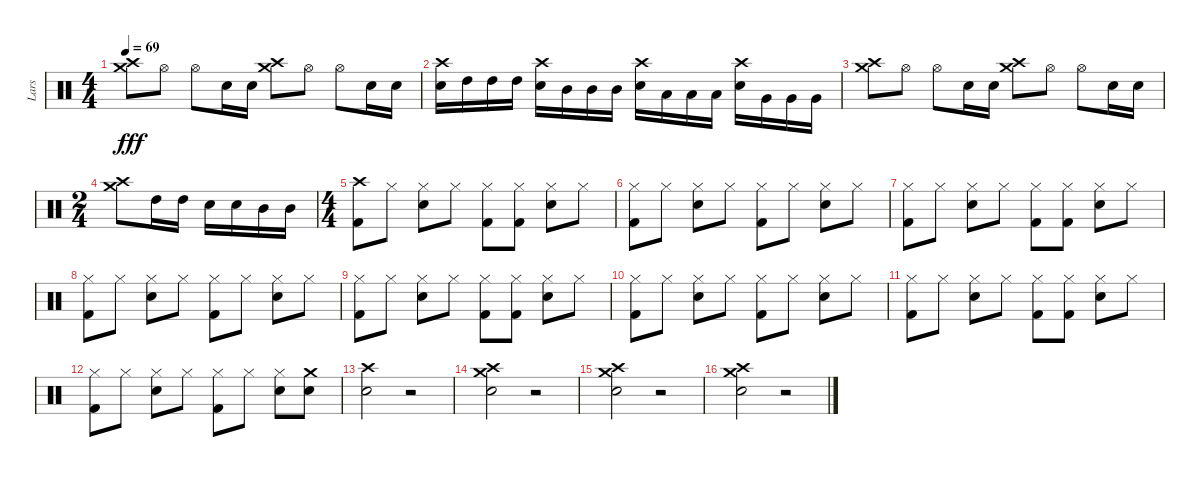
\track ("Lars" "Lars") {instrument percussion}
\staff {score}
\articulation defaults
\ts (4 4)
\tempo 69
\clef neutral
\ks c
("Crash high (hit)" "Crash medium (hit)").8{dy fff} "Hi-Hat (open)".8 "Hi-Hat (open)".8 "Electric Snare (hit)".16 "Electric Snare (hit)".16 ("Crash high (hit)" "Crash medium (hit)").8 "Hi-Hat (open)".8 "Hi-Hat (open)".8 "Electric Snare (hit)".16 "Electric Snare (hit)".16 |
("Crash high (hit)" "Electric Snare (hit)").16 "High Tom (hit)".16 "High Tom (hit)".16 "High Tom (hit)".16 ("Crash high (hit)" "Electric Snare (hit)").16 "Mid Tom (hit)".16 "Mid Tom (hit)".16 "Mid Tom (hit)".16 ("Crash high (hit)" "Electric Snare (hit)").16 "Low Tom (hit)".16 "Low Tom (hit)".16 "Low Tom (hit)".16 ("Crash high (hit)" "Electric Snare (hit)").16 "Very Low Tom (hit)".16 "Very Low Tom (hit)".16 "Very Low Tom (hit)".16 |
("Crash high (hit)" "Crash medium (hit)").8 "Hi-Hat (open)".8 "Hi-Hat (open)".8 "Electric Snare (hit)".16 "Electric Snare (hit)".16 ("Crash high (hit)" "Crash medium (hit)").8 "Hi-Hat (open)".8 "Hi-Hat (open)".8 "Electric Snare (hit)".16 "Electric Snare (hit)".16 |
\ts (2 4)
("Crash high (hit)" "Crash medium (hit)").8 "High Tom (hit)".16 "High Tom (hit)".16 "Electric Snare (hit)".16 "Electric Snare (hit)".16 "Mid Tom (hit)".16 "Mid Tom (hit)".16 |
\ts (4 4)
("Crash high (hit)" "Kick (hit) 2").8 "Hi-Hat (closed)".8 ("Hi-Hat (closed)" "Electric Snare (hit)").8 "Hi-Hat (closed)".8 ("Hi-Hat (closed)" "Kick (hit) 2").8 ("Hi-Hat (closed)" "Kick (hit) 2").8 ("Hi-Hat (closed)" "Electric Snare (hit)").8 "Hi-Hat (closed)".8 |
("Hi-Hat (closed)" "Kick (hit) 2").8 "Hi-Hat (closed)".8 ("Hi-Hat (closed)" "Electric Snare (hit)").8 "Hi-Hat (closed)".8 ("Hi-Hat (closed)" "Kick (hit) 2").8 "Hi-Hat (closed)".8 ("Hi-Hat (closed)" "Electric Snare (hit)").8 "Hi-Hat (closed)".8 |
("Hi-Hat (closed)" "Kick (hit) 2").8 "Hi-Hat (closed)".8 ("Hi-Hat (closed)" "Electric Snare (hit)").8 "Hi-Hat (closed)".8 ("Hi-Hat (closed)" "Kick (hit) 2").8 ("Hi-Hat (closed)" "Kick (hit) 2").8 ("Hi-Hat (closed)" "Electric Snare (hit)").8 "Hi-Hat (closed)".8 |
("Hi-Hat (closed)" "Kick (hit) 2").8 "Hi-Hat (closed)".8 ("Hi-Hat (closed)" "Electric Snare (hit)").8 "Hi-Hat (closed)".8 ("Hi-Hat (closed)" "Kick (hit) 2").8 "Hi-Hat (closed)".8 ("Hi-Hat (closed)" "Electric Snare (hit)").8 "Hi-Hat (closed)".8 |
("Hi-Hat (closed)" "Kick (hit) 2").8 "Hi-Hat (closed)".8 ("Hi-Hat (closed)" "Electric Snare (hit)").8 "Hi-Hat (closed)".8 ("Hi-Hat (closed)" "Kick (hit) 2").8 ("Hi-Hat (closed)" "Kick (hit) 2").8 ("Hi-Hat (closed)" "Electric Snare (hit)").8 "Hi-Hat (closed)".8 |
("Hi-Hat (closed)" "Kick (hit) 2").8 "Hi-Hat (closed)".8 ("Hi-Hat (closed)" "Electric Snare (hit)").8 "Hi-Hat (closed)".8 ("Hi-Hat (closed)" "Kick (hit) 2").8 "Hi-Hat (closed)".8 ("Hi-Hat (closed)" "Electric Snare (hit)").8 "Hi-Hat (closed)".8 |
("Hi-Hat (closed)" "Kick (hit) 2").8 "Hi-Hat (closed)".8 ("Hi-Hat (closed)" "Electric Snare (hit)").8 "Hi-Hat (closed)".8 ("Hi-Hat (closed)" "Kick (hit) 2").8 ("Hi-Hat (closed)" "Kick (hit) 2").8 ("Hi-Hat (closed)" "Electric Snare (hit)").8 "Hi-Hat (closed)".8 |
("Hi-Hat (closed)" "Kick (hit) 2").8 "Hi-Hat (closed)".8 ("Hi-Hat (closed)" "Electric Snare (hit)").8 "Hi-Hat (closed)".8 ("Hi-Hat (closed)" "Kick (hit) 2").8 "Hi-Hat (closed)".8 ("Hi-Hat (closed)" "Electric Snare (hit)").8 ("Crash medium (hit)" "Electric Snare (hit)").8 |
("Crash high (hit)" "Electric Snare (hit)").2 r.2 |
("Crash high (hit)" "Crash medium (hit)" "Electric Snare (hit)").2 r.2 |
("Crash high (hit)" "Crash medium (hit)" "Electric Snare (hit)").2 r.2 |
("Crash high (hit)" "Crash medium (hit)" "Electric Snare (hit)").2 r.2
